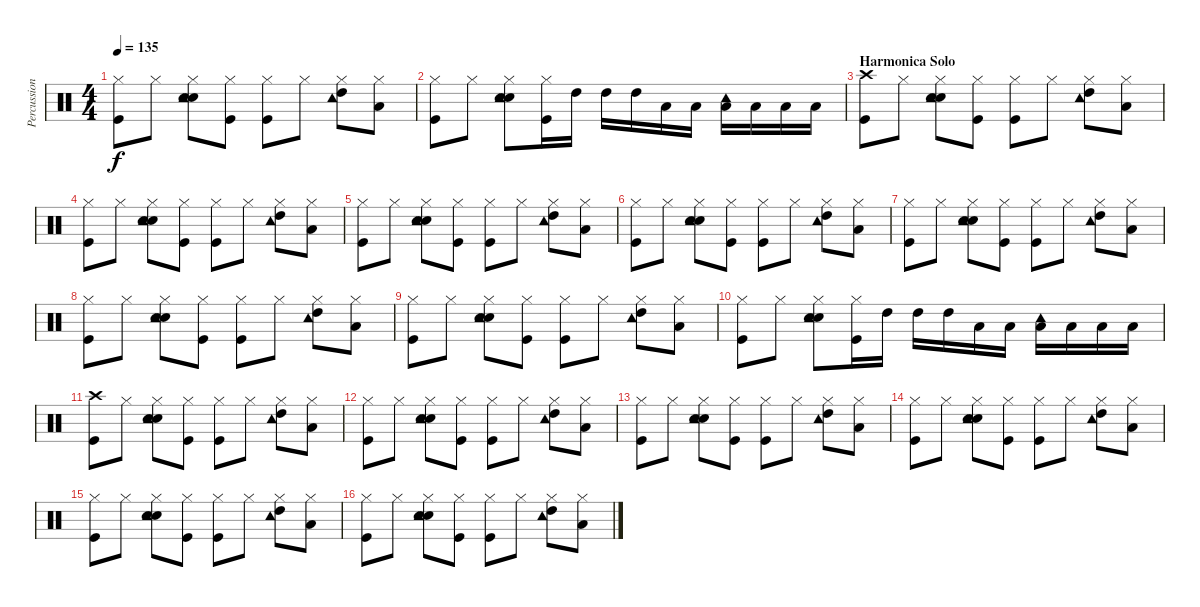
\track ("Percussion" "Percussion") {instrument percussion}
\staff {score}
\articulation defaults
\ts (4 4)
\tempo 135
\clef neutral
\ks c
("Hi-Hat (closed)" "Kick (hit)").8{dy f} "Hi-Hat (closed)".8 ("Hi-Hat (closed)" "Electric Snare (hit)" "Tambourine (hit)" "Hand Clap (hit)").8 ("Hi-Hat (closed)" "Kick (hit)").8 ("Hi-Hat (closed)" "Kick (hit)").8 "Hi-Hat (closed)".8 ("Hi-Hat (closed)" "High Tom (hit)" "Tambourine (hit)").8 ("Hi-Hat (closed)" "Low Tom (hit)").8 |
("Hi-Hat (closed)" "Kick (hit)").8 "Hi-Hat (closed)".8 ("Hi-Hat (closed)" "Electric Snare (hit)" "Tambourine (hit)" "Hand Clap (hit)").8 ("Hi-Hat (closed)" "Kick (hit)").16 "High Tom (hit)".16 "High Tom (hit)".16 "High Tom (hit)".16 "Low Tom (hit)".16 "Low Tom (hit)".16 ("Low Tom (hit)" "Tambourine (hit)").16 "Low Tom (hit)".16 "Low Floor Tom (hit)".16 "Low Floor Tom (hit)".16 |
\section ("" "Harmonica Solo")
("Crash high (hit)" "Kick (hit)").8 "Hi-Hat (closed)".8 ("Hi-Hat (closed)" "Electric Snare (hit)" "Tambourine (hit)" "Hand Clap (hit)").8 ("Hi-Hat (closed)" "Kick (hit)").8 ("Hi-Hat (closed)" "Kick (hit)").8 "Hi-Hat (closed)".8 ("Hi-Hat (closed)" "High Tom (hit)" "Tambourine (hit)").8 ("Hi-Hat (closed)" "Low Tom (hit)").8 |
("Hi-Hat (closed)" "Kick (hit)").8 "Hi-Hat (closed)".8 ("Hi-Hat (closed)" "Electric Snare (hit)" "Tambourine (hit)" "Hand Clap (hit)").8 ("Hi-Hat (closed)" "Kick (hit)").8 ("Hi-Hat (closed)" "Kick (hit)").8 "Hi-Hat (closed)".8 ("Hi-Hat (closed)" "High Tom (hit)" "Tambourine (hit)").8 ("Hi-Hat (closed)" "Low Tom (hit)").8 |
("Hi-Hat (closed)" "Kick (hit)").8 "Hi-Hat (closed)".8 ("Hi-Hat (closed)" "Electric Snare (hit)" "Tambourine (hit)" "Hand Clap (hit)").8 ("Hi-Hat (closed)" "Kick (hit)").8 ("Hi-Hat (closed)" "Kick (hit)").8 "Hi-Hat (closed)".8 ("Hi-Hat (closed)" "High Tom (hit)" "Tambourine (hit)").8 ("Hi-Hat (closed)" "Low Tom (hit)").8 |
("Hi-Hat (closed)" "Kick (hit)").8 "Hi-Hat (closed)".8 ("Hi-Hat (closed)" "Electric Snare (hit)" "Tambourine (hit)" "Hand Clap (hit)").8 ("Hi-Hat (closed)" "Kick (hit)").8 ("Hi-Hat (closed)" "Kick (hit)").8 "Hi-Hat (closed)".8 ("Hi-Hat (closed)" "High Tom (hit)" "Tambourine (hit)").8 ("Hi-Hat (closed)" "Low Tom (hit)").8 |
("Hi-Hat (closed)" "Kick (hit)").8 "Hi-Hat (closed)".8 ("Hi-Hat (closed)" "Electric Snare (hit)" "Tambourine (hit)" "Hand Clap (hit)").8 ("Hi-Hat (closed)" "Kick (hit)").8 ("Hi-Hat (closed)" "Kick (hit)").8 "Hi-Hat (closed)".8 ("Hi-Hat (closed)" "High Tom (hit)" "Tambourine (hit)").8 ("Hi-Hat (closed)" "Low Tom (hit)").8 |
("Hi-Hat (closed)" "Kick (hit)").8 "Hi-Hat (closed)".8 ("Hi-Hat (closed)" "Electric Snare (hit)" "Tambourine (hit)" "Hand Clap (hit)").8 ("Hi-Hat (closed)" "Kick (hit)").8 ("Hi-Hat (closed)" "Kick (hit)").8 "Hi-Hat (closed)".8 ("Hi-Hat (closed)" "High Tom (hit)" "Tambourine (hit)").8 ("Hi-Hat (closed)" "Low Tom (hit)").8 |
("Hi-Hat (closed)" "Kick (hit)").8 "Hi-Hat (closed)".8 ("Hi-Hat (closed)" "Electric Snare (hit)" "Tambourine (hit)" "Hand Clap (hit)").8 ("Hi-Hat (closed)" "Kick (hit)").8 ("Hi-Hat (closed)" "Kick (hit)").8 "Hi-Hat (closed)".8 ("Hi-Hat (closed)" "High Tom (hit)" "Tambourine (hit)").8 ("Hi-Hat (closed)" "Low Tom (hit)").8 |
("Hi-Hat (closed)" "Kick (hit)").8 "Hi-Hat (closed)".8 ("Hi-Hat (closed)" "Electric Snare (hit)" "Tambourine (hit)" "Hand Clap (hit)").8 ("Hi-Hat (closed)" "Kick (hit)").16 "High Tom (hit)".16 "High Tom (hit)".16 "High Tom (hit)".16 "Low Tom (hit)".16 "Low Tom (hit)".16 ("Low Tom (hit)" "Tambourine (hit)").16 "Low Tom (hit)".16 "Low Floor Tom (hit)".16 "Low Floor Tom (hit)".16 |
("Crash high (hit)" "Kick (hit)").8 "Hi-Hat (closed)".8 ("Hi-Hat (closed)" "Electric Snare (hit)" "Tambourine (hit)" "Hand Clap (hit)").8 ("Hi-Hat (closed)" "Kick (hit)").8 ("Hi-Hat (closed)" "Kick (hit)").8 "Hi-Hat (closed)".8 ("Hi-Hat (closed)" "High Tom (hit)" "Tambourine (hit)").8 ("Hi-Hat (closed)" "Low Tom (hit)").8 |
("Hi-Hat (closed)" "Kick (hit)").8 "Hi-Hat (closed)".8 ("Hi-Hat (closed)" "Electric Snare (hit)" "Tambourine (hit)" "Hand Clap (hit)").8 ("Hi-Hat (closed)" "Kick (hit)").8 ("Hi-Hat (closed)" "Kick (hit)").8 "Hi-Hat (closed)".8 ("Hi-Hat (closed)" "High Tom (hit)" "Tambourine (hit)").8 ("Hi-Hat (closed)" "Low Tom (hit)").8 |
("Hi-Hat (closed)" "Kick (hit)").8 "Hi-Hat (closed)".8 ("Hi-Hat (closed)" "Electric Snare (hit)" "Tambourine (hit)" "Hand Clap (hit)").8 ("Hi-Hat (closed)" "Kick (hit)").8 ("Hi-Hat (closed)" "Kick (hit)").8 "Hi-Hat (closed)".8 ("Hi-Hat (closed)" "High Tom (hit)" "Tambourine (hit)").8 ("Hi-Hat (closed)" "Low Tom (hit)").8 |
("Hi-Hat (closed)" "Kick (hit)").8 "Hi-Hat (closed)".8 ("Hi-Hat (closed)" "Electric Snare (hit)" "Tambourine (hit)" "Hand Clap (hit)").8 ("Hi-Hat (closed)" "Kick (hit)").8 ("Hi-Hat (closed)" "Kick (hit)").8 "Hi-Hat (closed)".8 ("Hi-Hat (closed)" "High Tom (hit)" "Tambourine (hit)").8 ("Hi-Hat (closed)" "Low Tom (hit)").8 |
("Hi-Hat (closed)" "Kick (hit)").8 "Hi-Hat (closed)".8 ("Hi-Hat (closed)" "Electric Snare (hit)" "Tambourine (hit)" "Hand Clap (hit)").8 ("Hi-Hat (closed)" "Kick (hit)").8 ("Hi-Hat (closed)" "Kick (hit)").8 "Hi-Hat (closed)".8 ("Hi-Hat (closed)" "High Tom (hit)" "Tambourine (hit)").8 ("Hi-Hat (closed)" "Low Tom (hit)").8 |
("Hi-Hat (closed)" "Kick (hit)").8 "Hi-Hat (closed)".8 ("Hi-Hat (closed)" "Electric Snare (hit)" "Tambourine (hit)" "Hand Clap (hit)").8 ("Hi-Hat (closed)" "Kick (hit)").8 ("Hi-Hat (closed)" "Kick (hit)").8 "Hi-Hat (closed)".8 ("Hi-Hat (closed)" "High Tom (hit)" "Tambourine (hit)").8 ("Hi-Hat (closed)" "Low Tom (hit)").8
